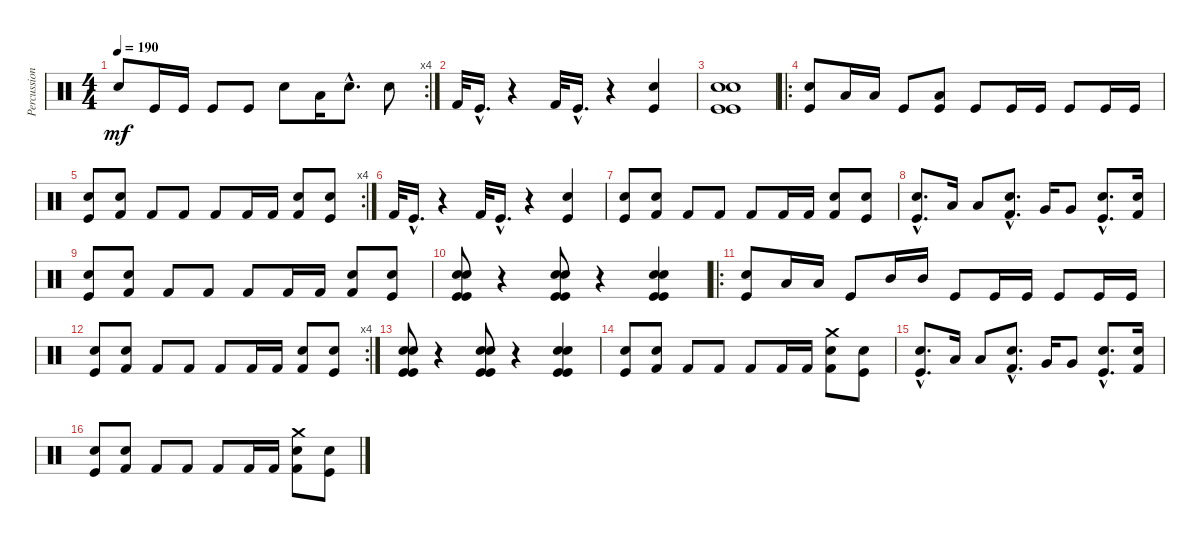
\track ("Percussion" "Percussion") {instrument percussion}
\staff {score}
\articulation defaults
\rc 4
\ts (4 4)
\tempo 190
\clef neutral
\ks c "Snare (hit) 2".8{dy mf} "Kick (hit)".16 "Kick (hit)".16 "Kick (hit)".8 "Kick (hit)".8 "Electric Snare (hit)".8 "Low Tom (hit)".16 "Electric Snare (hit)"{hac}.8{d} "Snare (hit) 2".8
|
"Kick (hit) 2".32 "Kick (hit)"{hac}.16{d} r.4 "Kick (hit) 2".32 "Kick (hit)"{hac}.16{d} r.4 ("Electric Snare (hit)" "Kick (hit)").4 |
("Electric Snare (hit)" "Electric Snare (hit)" "Kick (hit)" "Kick (hit)").1 |
\ro
("Electric Snare (hit)" "Kick (hit)").8 "Low Tom (hit)".16 "Low Tom (hit)".16 "Kick (hit)".8 ("Kick (hit)" "Low Tom (hit)").8 "Kick (hit)".8 "Kick (hit)".16 "Kick (hit)".16 "Kick (hit)".8 "Kick (hit)".16 "Kick (hit)".16 |
\rc 4
("Snare (hit) 2" "Kick (hit)").8 ("Electric Snare (hit)" "Kick (hit) 2").8 "Kick (hit) 2".8 "Kick (hit) 2".8 "Kick (hit) 2".8 "Kick (hit) 2".16 "Kick (hit) 2".16 ("Electric Snare (hit)" "Kick (hit) 2").8 ("Snare (hit) 2" "Kick (hit)").8 |
"Kick (hit) 2".32 "Kick (hit)"{hac}.16{d} r.4 "Kick (hit) 2".32 "Kick (hit)"{hac}.16{d} r.4 ("Electric Snare (hit)" "Kick (hit)").4 |
("Snare (hit) 2" "Kick (hit)").8 ("Electric Snare (hit)" "Kick (hit) 2").8 "Kick (hit) 2".8 "Kick (hit) 2".8 "Kick (hit) 2".8 "Kick (hit) 2".16 "Kick (hit) 2".16 ("Electric Snare (hit)" "Kick (hit) 2").8 ("Snare (hit) 2" "Kick (hit)").8 |
("Electric Snare (hit)"{hac} "Kick (hit)"{hac}).8{d} "Low Tom (hit)".16 "Low Tom (hit)".8 ("Electric Snare (hit)"{hac} "Kick (hit) 2"{hac}).8{d} "Very Low Tom (hit)".16 "Very Low Tom (hit)".8 ("Snare (hit) 2"{hac} "Kick (hit)"{hac}).8{d} ("Electric Snare (hit)" "Kick (hit) 2").16 |
("Snare (hit) 2" "Kick (hit)").8 ("Electric Snare (hit)" "Kick (hit) 2").8 "Kick (hit) 2".8 "Kick (hit) 2".8 "Kick (hit) 2".8 "Kick (hit) 2".16 "Kick (hit) 2".16 ("Electric Snare (hit)" "Kick (hit) 2").8 ("Snare (hit) 2" "Kick (hit)").8 |
("Electric Snare (hit)" "Electric Snare (hit)" "Kick (hit)" "Kick (hit)").8 r.4 ("Electric Snare (hit)" "Electric Snare (hit)" "Kick (hit)" "Kick (hit)").8 r.4 ("Electric Snare (hit)" "Electric Snare (hit)" "Kick (hit)" "Kick (hit)").4 |
\ro
("Electric Snare (hit)" "Kick (hit)").8 "Low Tom (hit)".16 "Low Tom (hit)".16 "Kick (hit)".8 "Mid Tom (hit)".16 "Mid Tom (hit)".16 "Kick (hit)".8 "Kick (hit)".16 "Kick (hit)".16 "Kick (hit)".8 "Kick (hit)".16 "Kick (hit)".16 |
\rc 4
("Snare (hit) 2" "Kick (hit)").8 ("Electric Snare (hit)" "Kick (hit) 2").8 "Kick (hit) 2".8 "Kick (hit) 2".8 "Kick (hit) 2".8 "Kick (hit) 2".16 "Kick (hit) 2".16 ("Electric Snare (hit)" "Kick (hit) 2").8 ("Snare (hit) 2" "Kick (hit)").8 |
("Electric Snare (hit)" "Electric Snare (hit)" "Kick (hit)" "Kick (hit)").8 r.4 ("Electric Snare (hit)" "Electric Snare (hit)" "Kick (hit)" "Kick (hit)").8 r.4 ("Electric Snare (hit)" "Electric Snare (hit)" "Kick (hit)" "Kick (hit)").4 |
("Snare (hit) 2" "Kick (hit)").8 ("Electric Snare (hit)" "Kick (hit) 2").8 "Kick (hit) 2".8 "Kick (hit) 2".8 "Kick (hit) 2".8 "Kick (hit) 2".16 "Kick (hit) 2".16 ("Electric Snare (hit)" "Kick (hit) 2" "Crash medium (hit)").8 ("Snare (hit) 2" "Kick (hit)").8 |
("Electric Snare (hit)"{hac} "Kick (hit)"{hac}).8{d} "Low Tom (hit)".16 "Low Tom (hit)".8 ("Electric Snare (hit)"{hac} "Kick (hit) 2"{hac}).8{d} "Very Low Tom (hit)".16 "Very Low Tom (hit)".8 ("Snare (hit) 2"{hac} "Kick (hit)"{hac}).8{d} ("Electric Snare (hit)" "Kick (hit) 2").16 |
("Snare (hit) 2" "Kick (hit)").8 ("Electric Snare (hit)" "Kick (hit) 2").8 "Kick (hit) 2".8 "Kick (hit) 2".8 "Kick (hit) 2".8 "Kick (hit) 2".16 "Kick (hit) 2".16 ("Electric Snare (hit)" "Kick (hit) 2" "Crash medium (hit)").8 ("Snare (hit) 2" "Kick (hit)").8
